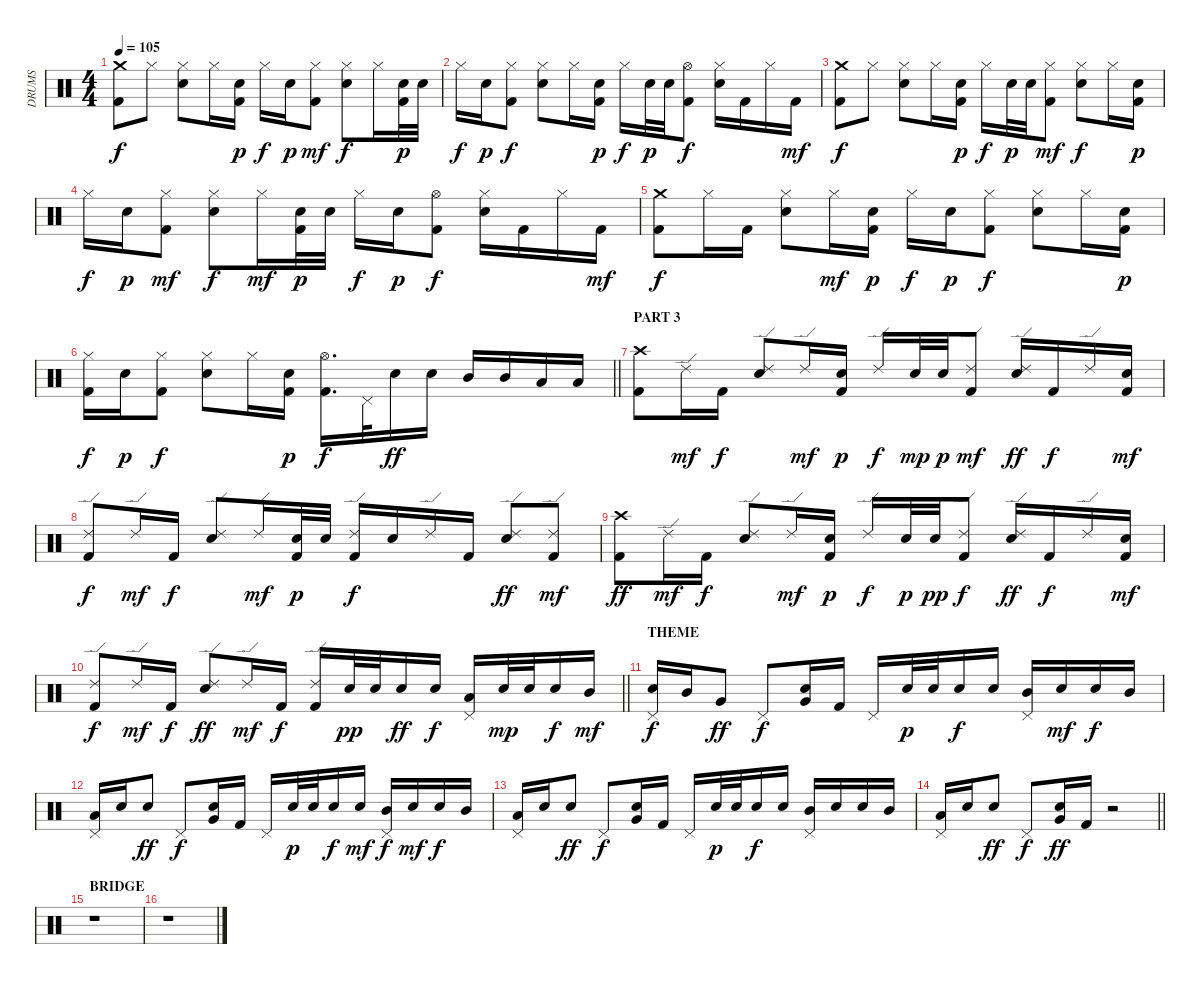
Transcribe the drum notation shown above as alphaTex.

\track ("DRUMS" "DRUMS") {instrument percussion}
\staff {score}
\articulation defaults
\ts (4 4)
\tempo 105
\clef neutral
\ks c
("Crash medium (hit)" "Kick (hit) 2").8{dy f} "Hi-Hat (closed)".8 ("Hi-Hat (closed)" "Snare (hit) 2").8 "Hi-Hat (closed)".16 ("Snare (hit) 2" "Kick (hit) 2").16{dy p} "Hi-Hat (closed)".16{dy f} "Snare (hit) 2".16{dy p} ("Hi-Hat (closed)" "Kick (hit) 2").8{dy mf} ("Hi-Hat (closed)" "Snare (hit) 2").8{dy f} "Hi-Hat (closed)".16 ("Snare (hit) 2" "Kick (hit) 2").32{dy p} "Snare (hit) 2".32 |
"Hi-Hat (closed)".16{dy f} "Snare (hit) 2".16{dy p} ("Hi-Hat (closed)" "Kick (hit) 2").8{dy f} ("Hi-Hat (closed)" "Snare (hit) 2").8 "Hi-Hat (closed)".16 ("Snare (hit) 2" "Kick (hit) 2").16{dy p} "Hi-Hat (closed)".16{dy f} "Snare (hit) 2".32{dy p} "Snare (hit) 2".32 ("Hi-Hat (open)" "Kick (hit) 2").8{dy f} ("Hi-Hat (closed)" "Snare (hit) 2").16 "Kick (hit) 2".16 "Hi-Hat (closed)".16 "Kick (hit) 2".16{dy mf} |
("Crash medium (hit)" "Kick (hit) 2").8{dy f} "Hi-Hat (closed)".8 ("Hi-Hat (closed)" "Snare (hit) 2").8 "Hi-Hat (closed)".16 ("Snare (hit) 2" "Kick (hit) 2").16{dy p} "Hi-Hat (closed)".16{dy f} "Snare (hit) 2".32{dy p} "Snare (hit) 2".32 ("Hi-Hat (closed)" "Kick (hit) 2").8{dy mf} ("Hi-Hat (closed)" "Snare (hit) 2").8{dy f} "Hi-Hat (closed)".16 ("Snare (hit) 2" "Kick (hit) 2").16{dy p} |
"Hi-Hat (closed)".16{dy f} "Snare (hit) 2".16{dy p} ("Hi-Hat (closed)" "Kick (hit) 2").8{dy mf} ("Hi-Hat (closed)" "Snare (hit) 2").8{dy f} "Hi-Hat (closed)".16{dy mf} ("Snare (hit) 2" "Kick (hit) 2").32{dy p} "Snare (hit) 2".32 "Hi-Hat (closed)".16{dy f} "Snare (hit) 2".16{dy p} ("Hi-Hat (open)" "Kick (hit) 2").8{dy f} ("Hi-Hat (closed)" "Snare (hit) 2").16 "Kick (hit) 2".16 "Hi-Hat (closed)".16 "Kick (hit) 2".16{dy mf} |
("Crash medium (hit)" "Kick (hit) 2").8{dy f} "Hi-Hat (closed)".16 "Kick (hit) 2".16 ("Hi-Hat (closed)" "Snare (hit) 2").8 "Hi-Hat (closed)".16{dy mf} ("Snare (hit) 2" "Kick (hit) 2").16{dy p} "Hi-Hat (closed)".16{dy f} "Snare (hit) 2".16{dy p} ("Hi-Hat (closed)" "Kick (hit) 2").8{dy f} ("Hi-Hat (closed)" "Snare (hit) 2").8 "Hi-Hat (closed)".16 ("Snare (hit) 2" "Kick (hit) 2").16{dy p} |
\barLineRight lightlight
("Hi-Hat (closed)" "Kick (hit) 2").16{dy f} "Snare (hit) 2".16{dy p} ("Hi-Hat (closed)" "Kick (hit) 2").8{dy f} ("Hi-Hat (closed)" "Snare (hit) 2").8 "Hi-Hat (closed)".16 ("Snare (hit) 2" "Kick (hit) 2").16{dy p} ("Hi-Hat (open)" "Kick (hit) 2").16{d dy f} "Pedal Hi-Hat (hit)".32 "Electric Snare (hit)".16{dy ff} "Snare (hit) 2".16 "Mid Tom (hit)".16 "Mid Tom (hit)".16 "Low Tom (hit)".16 "Low Tom (hit)".16 |
\section ("" "PART 3")
("Crash high (hit)" "Kick (hit) 2").8 "Ride (edge) 2".16{dy mf} "Kick (hit) 2".16{dy f} ("Ride (edge) 2" "Snare (hit) 2").8 "Ride (edge) 2".16{dy mf} ("Snare (hit) 2" "Kick (hit) 2").16{dy p} "Ride (edge) 2".16{dy f} "Snare (hit) 2".32{dy mp} "Snare (hit) 2".32{dy p} ("Ride (edge) 2" "Kick (hit) 2").8{dy mf} ("Ride (edge) 2" "Snare (hit) 2").16{dy ff} "Kick (hit) 2".16{dy f} "Ride (edge) 2".16 ("Snare (hit) 2" "Kick (hit) 2").16{dy mf} |
("Ride (edge) 2" "Kick (hit) 2").8{dy f} "Ride (edge) 2".16{dy mf} "Kick (hit) 2".16{dy f} ("Ride (edge) 2" "Snare (hit) 2").8 "Ride (edge) 2".16{dy mf} ("Snare (hit) 2" "Kick (hit) 2").32{dy p} "Snare (hit) 2".32 ("Ride (edge) 2" "Kick (hit) 2").16{dy f} "Snare (hit) 2".16 "Ride (edge) 2".16 "Kick (hit) 2".16 ("Ride (edge) 2" "Snare (hit) 2").8{dy ff} ("Ride (edge) 2" "Kick (hit) 2").8{dy mf} |
("Crash high (hit)" "Kick (hit) 2").8{dy ff} "Ride (edge) 2".16{dy mf} "Kick (hit) 2".16{dy f} ("Ride (edge) 2" "Snare (hit) 2").8 "Ride (edge) 2".16{dy mf} ("Snare (hit) 2" "Kick (hit) 2").16{dy p} "Ride (edge) 2".16{dy f} "Snare (hit) 2".32{dy p} "Snare (hit) 2".32{dy pp} ("Ride (edge) 2" "Kick (hit) 2").8{dy f} ("Ride (edge) 2" "Snare (hit) 2").16{dy ff} "Kick (hit) 2".16{dy f} "Ride (edge) 2".16 ("Snare (hit) 2" "Kick (hit) 2").16{dy mf} |
\barLineRight lightlight
("Ride (edge) 2" "Kick (hit) 2").8{dy f} "Ride (edge) 2".16{dy mf} "Kick (hit) 2".16{dy f} ("Ride (edge) 2" "Snare (hit) 2").8{dy ff} "Ride (edge) 2".16{dy mf} "Kick (hit) 2".16{dy f} ("Ride (edge) 2" "Kick (hit) 2").16 "Snare (hit) 2".32{dy pp} "Snare (hit) 2".32 "Electric Snare (hit)".16{dy ff} "Snare (hit) 2".16{dy f} ("Pedal Hi-Hat (hit)" "Low Tom (hit)").16 "Snare (hit) 2".32{dy mp} "Snare (hit) 2".32 "Electric Snare (hit)".16{dy f} "Mid Tom (hit)".16{dy mf} |
\section ("" "THEME")
("Pedal Hi-Hat (hit)" "Electric Snare (hit)").16{dy f} "Mid Tom (hit)".16 "Very Low Tom (hit)".8{dy ff} "Pedal Hi-Hat (hit)".8{dy f} ("Snare (hit) 2" "Very Low Tom (hit)").16 "Kick (hit) 2".16 "Pedal Hi-Hat (hit)".16 "Snare (hit) 2".32{dy p} "Snare (hit) 2".32 "Electric Snare (hit)".16{dy f} "Snare (hit) 2".16 ("Pedal Hi-Hat (hit)" "Mid Tom (hit)").16 "Snare (hit) 2".16{dy mf} "Electric Snare (hit)".16{dy f} "Mid Tom (hit)".16 |
("Pedal Hi-Hat (hit)" "Low Tom (hit)").16 "Snare (hit) 2".16 "Electric Snare (hit)".8{dy ff} "Pedal Hi-Hat (hit)".8{dy f} ("Snare (hit) 2" "Very Low Tom (hit)").16 "Kick (hit) 2".16 "Pedal Hi-Hat (hit)".16 "Snare (hit) 2".32{dy p} "Snare (hit) 2".32 "Electric Snare (hit)".16{dy f} "Snare (hit) 2".16{dy mf} ("Pedal Hi-Hat (hit)" "Mid Tom (hit)").16{dy f} "Snare (hit) 2".16{dy mf} "Electric Snare (hit)".16{dy f} "Mid Tom (hit)".16 |
("Pedal Hi-Hat (hit)" "Low Tom (hit)").16 "Snare (hit) 2".16 "Electric Snare (hit)".8{dy ff} "Pedal Hi-Hat (hit)".8{dy f} ("Snare (hit) 2" "Very Low Tom (hit)").16 "Kick (hit) 2".16 "Pedal Hi-Hat (hit)".16 "Snare (hit) 2".32{dy p} "Snare (hit) 2".32 "Electric Snare (hit)".16{dy f} "Snare (hit) 2".16 ("Pedal Hi-Hat (hit)" "Mid Tom (hit)").16 "Snare (hit) 2".16 "Electric Snare (hit)".16 "Mid Tom (hit)".16 |
\barLineRight lightlight
("Pedal Hi-Hat (hit)" "Low Tom (hit)").16 "Snare (hit) 2".16 "Electric Snare (hit)".8{dy ff} "Pedal Hi-Hat (hit)".8{dy f} ("Snare (hit) 2" "Very Low Tom (hit)").16{dy ff} "Kick (hit) 2".16 r.2 |
\section ("" "BRIDGE")
r.1 |
r.1
